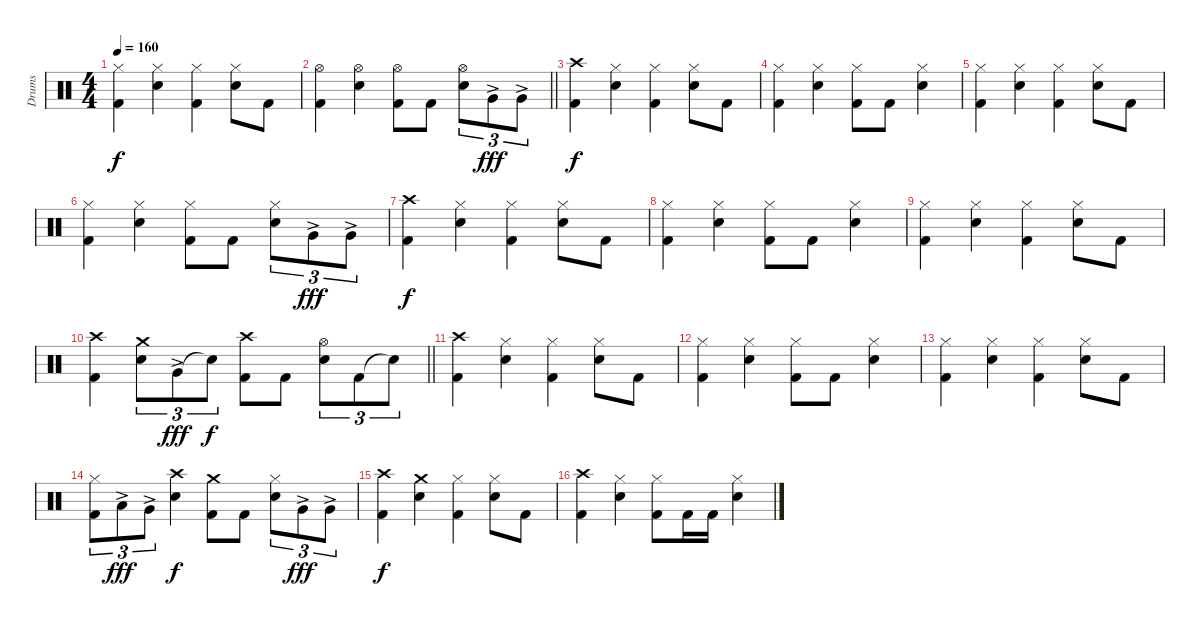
\track ("Drums" "Drums") {instrument percussion}
\staff {score}
\articulation defaults
\ts (4 4)
\tempo 160
\clef neutral
\ks c
("Hi-Hat (closed)" "Kick (hit) 2").4{dy f} ("Hi-Hat (closed)" "Snare (hit) 2").4 ("Hi-Hat (closed)" "Kick (hit) 2").4 ("Hi-Hat (closed)" "Snare (hit) 2").8 "Kick (hit) 2".8 |
\barLineRight lightlight
("Hi-Hat (open)" "Kick (hit) 2").4 ("Hi-Hat (open)" "Snare (hit) 2").4 ("Hi-Hat (open)" "Kick (hit) 2").8 "Kick (hit) 2".8 ("Hi-Hat (open)" "Snare (hit) 2").8{tu (3 2)} "Very Low Tom (hit)"{ac}.8{tu (3 2) dy fff} "Very Low Tom (hit)"{ac}.8{tu (3 2)} |
("Crash high (hit)" "Kick (hit) 2").4{dy f} ("Hi-Hat (closed)" "Snare (hit) 2").4 ("Hi-Hat (closed)" "Kick (hit) 2").4 ("Hi-Hat (closed)" "Snare (hit) 2").8 "Kick (hit) 2".8 |
("Hi-Hat (closed)" "Kick (hit) 2").4 ("Hi-Hat (closed)" "Snare (hit) 2").4 ("Hi-Hat (closed)" "Kick (hit) 2").8 "Kick (hit) 2".8 ("Hi-Hat (closed)" "Snare (hit) 2").4 |
("Hi-Hat (closed)" "Kick (hit) 2").4 ("Hi-Hat (closed)" "Snare (hit) 2").4 ("Hi-Hat (closed)" "Kick (hit) 2").4 ("Hi-Hat (closed)" "Snare (hit) 2").8 "Kick (hit) 2".8 |
("Hi-Hat (closed)" "Kick (hit) 2").4 ("Hi-Hat (closed)" "Snare (hit) 2").4 ("Hi-Hat (closed)" "Kick (hit) 2").8 "Kick (hit) 2".8 ("Hi-Hat (closed)" "Snare (hit) 2").8{tu (3 2)} "Very Low Tom (hit)"{ac}.8{tu (3 2) dy fff} "Very Low Tom (hit)"{ac}.8{tu (3 2)} |
("Crash high (hit)" "Kick (hit) 2").4{dy f} ("Hi-Hat (closed)" "Snare (hit) 2").4 ("Hi-Hat (closed)" "Kick (hit) 2").4 ("Hi-Hat (closed)" "Snare (hit) 2").8 "Kick (hit) 2".8 |
("Hi-Hat (closed)" "Kick (hit) 2").4 ("Hi-Hat (closed)" "Snare (hit) 2").4 ("Hi-Hat (closed)" "Kick (hit) 2").8 "Kick (hit) 2".8 ("Hi-Hat (closed)" "Snare (hit) 2").4 |
("Hi-Hat (closed)" "Kick (hit) 2").4 ("Hi-Hat (closed)" "Snare (hit) 2").4 ("Hi-Hat (closed)" "Kick (hit) 2").4 ("Hi-Hat (closed)" "Snare (hit) 2").8 "Kick (hit) 2".8 |
\barLineRight lightlight
("Crash high (hit)" "Kick (hit) 2").4 ("Crash medium (hit)" "Snare (hit) 2").8{tu (3 2)} "Very Low Tom (hit)"{ac}.8{tu (3 2) dy fff} "Snare (hit)"{t}.8{tu (3 2) dy f} ("Crash high (hit)" "Kick (hit) 2").8 "Kick (hit) 2".8 ("Hi-Hat (open)" "Snare (hit) 2").8{tu (3 2)} "Kick (hit) 2".8{tu (3 2)} "Snare (hit)"{t}.8{tu (3 2)} |
("Crash high (hit)" "Kick (hit) 2").4 ("Hi-Hat (closed)" "Snare (hit) 2").4 ("Hi-Hat (closed)" "Kick (hit) 2").4 ("Hi-Hat (closed)" "Snare (hit) 2").8 "Kick (hit) 2".8 |
("Hi-Hat (closed)" "Kick (hit) 2").4 ("Hi-Hat (closed)" "Snare (hit) 2").4 ("Hi-Hat (closed)" "Kick (hit) 2").8 "Kick (hit) 2".8 ("Hi-Hat (closed)" "Snare (hit) 2").4 |
("Hi-Hat (closed)" "Kick (hit) 2").4 ("Hi-Hat (closed)" "Snare (hit) 2").4 ("Hi-Hat (closed)" "Kick (hit) 2").4 ("Hi-Hat (closed)" "Snare (hit) 2").8 "Kick (hit) 2".8 |
("Hi-Hat (closed)" "Kick (hit) 2").8{tu (3 2)} "Low Tom (hit)"{ac}.8{tu (3 2) dy fff} "Very Low Tom (hit)"{ac}.8{tu (3 2)} ("Crash high (hit)" "Snare (hit) 2").4{dy f} ("Crash medium (hit)" "Kick (hit) 2").8 "Kick (hit) 2".8 ("Hi-Hat (closed)" "Snare (hit) 2").8{tu (3 2)} "Very Low Tom (hit)"{ac}.8{tu (3 2) dy fff} "Very Low Tom (hit)"{ac}.8{tu (3 2)} |
("Crash high (hit)" "Kick (hit) 2").4{dy f} ("Crash medium (hit)" "Snare (hit) 2").4 ("Hi-Hat (closed)" "Kick (hit) 2").4 ("Hi-Hat (closed)" "Snare (hit) 2").8 "Kick (hit) 2".8 |
("Crash high (hit)" "Kick (hit) 2").4 ("Hi-Hat (closed)" "Snare (hit) 2").4 ("Hi-Hat (closed)" "Kick (hit) 2").8 "Kick (hit) 2".16 "Kick (hit) 2".16 ("Hi-Hat (closed)" "Snare (hit) 2").4
